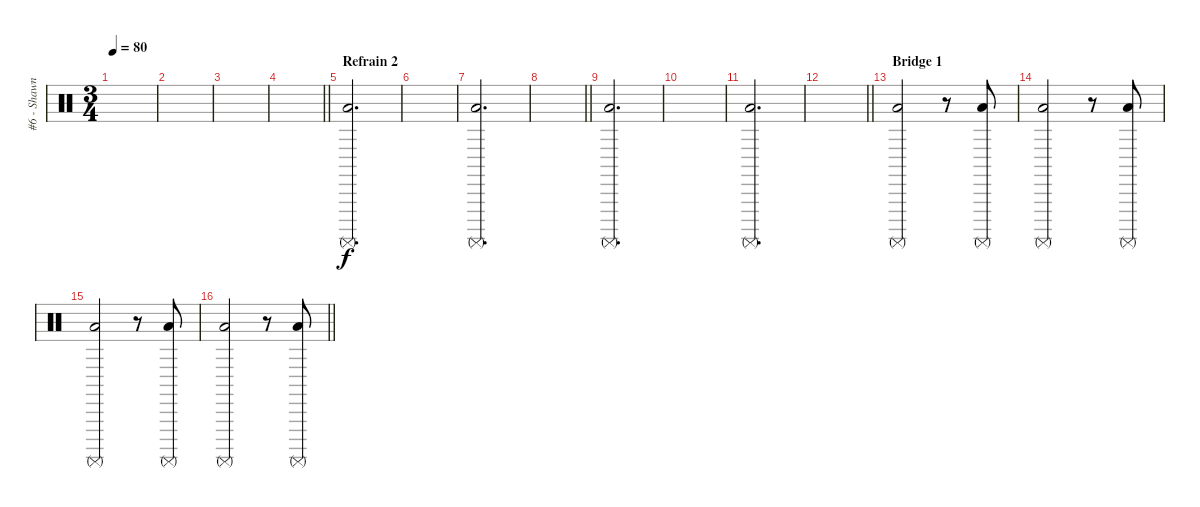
\track ("#6 - Shawn Crahan" "#6 - Shawn") {instrument percussion}
\staff {score}
\articulation defaults
\ts (3 4)
\tempo 80
\clef neutral
\ks c
|
|
|
\barLineRight lightlight
|
\section ("" "Refrain 2")
("Low Floor Tom (hit)" "Surdo (mute)").2{d volume 16} |
|
("Low Floor Tom (hit)" "Surdo (mute)").2{d} |
\barLineRight lightlight
|
("Low Floor Tom (hit)" "Surdo (mute)").2{d volume 16} |
|
("Low Floor Tom (hit)" "Surdo (mute)").2{d} |
\barLineRight lightlight
|
\section ("" "Bridge 1")
("Low Floor Tom (hit)" "Surdo (mute)").2 r.8 ("Low Floor Tom (hit)" "Surdo (mute)").8 |
("Low Floor Tom (hit)" "Surdo (mute)").2 r.8 ("Low Floor Tom (hit)" "Surdo (mute)").8 |
("Low Floor Tom (hit)" "Surdo (mute)").2 r.8 ("Low Floor Tom (hit)" "Surdo (mute)").8 |
\barLineRight lightlight
("Low Floor Tom (hit)" "Surdo (mute)").2 r.8 ("Low Floor Tom (hit)" "Surdo (mute)").8
